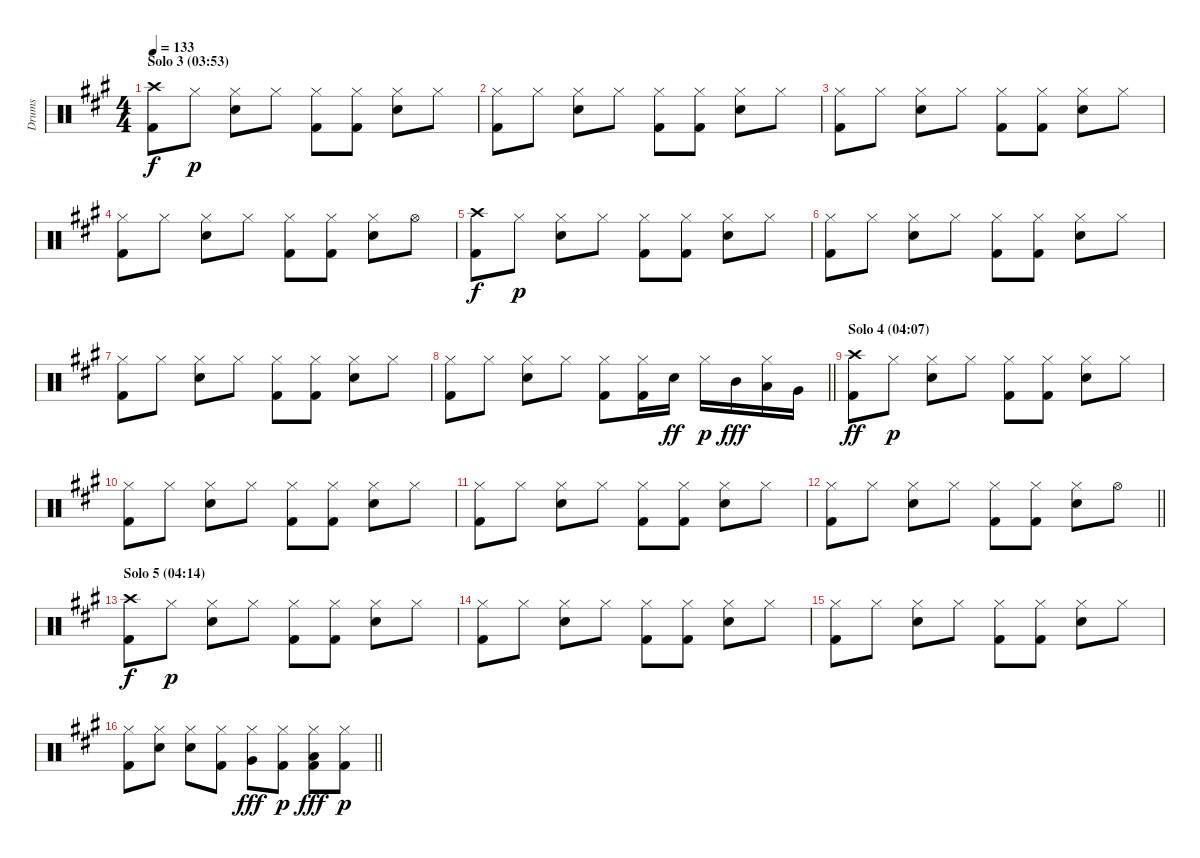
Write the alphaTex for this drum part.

\track ("Drums" "Drums") {instrument percussion}
\staff {score}
\articulation defaults
\ts (4 4)
\section ("" "Solo 3 (03:53)")
\tempo 133
\clef neutral
\ks a
("Crash high (hit)" "Kick (hit) 2").8{dy f} "Hi-Hat (closed)".8{dy p} ("Hi-Hat (closed)" "Snare (hit) 2").8 "Hi-Hat (closed)".8 ("Hi-Hat (closed)" "Kick (hit) 2").8 ("Hi-Hat (closed)" "Kick (hit) 2").8 ("Hi-Hat (closed)" "Snare (hit) 2").8 "Hi-Hat (closed)".8 |
("Hi-Hat (closed)" "Kick (hit) 2").8 "Hi-Hat (closed)".8 ("Hi-Hat (closed)" "Snare (hit) 2").8 "Hi-Hat (closed)".8 ("Hi-Hat (closed)" "Kick (hit) 2").8 ("Hi-Hat (closed)" "Kick (hit) 2").8 ("Hi-Hat (closed)" "Snare (hit) 2").8 "Hi-Hat (closed)".8 |
("Hi-Hat (closed)" "Kick (hit) 2").8 "Hi-Hat (closed)".8 ("Hi-Hat (closed)" "Snare (hit) 2").8 "Hi-Hat (closed)".8 ("Hi-Hat (closed)" "Kick (hit) 2").8 ("Hi-Hat (closed)" "Kick (hit) 2").8 ("Hi-Hat (closed)" "Snare (hit) 2").8 "Hi-Hat (closed)".8 |
("Hi-Hat (closed)" "Kick (hit) 2").8 "Hi-Hat (closed)".8 ("Hi-Hat (closed)" "Snare (hit) 2").8 "Hi-Hat (closed)".8 ("Hi-Hat (closed)" "Kick (hit) 2").8 ("Hi-Hat (closed)" "Kick (hit) 2").8 ("Hi-Hat (closed)" "Snare (hit) 2").8 "Hi-Hat (open)".8 |
("Crash high (hit)" "Kick (hit) 2").8{dy f} "Hi-Hat (closed)".8{dy p} ("Hi-Hat (closed)" "Snare (hit) 2").8 "Hi-Hat (closed)".8 ("Hi-Hat (closed)" "Kick (hit) 2").8 ("Hi-Hat (closed)" "Kick (hit) 2").8 ("Hi-Hat (closed)" "Snare (hit) 2").8 "Hi-Hat (closed)".8 |
("Hi-Hat (closed)" "Kick (hit) 2").8 "Hi-Hat (closed)".8 ("Hi-Hat (closed)" "Snare (hit) 2").8 "Hi-Hat (closed)".8 ("Hi-Hat (closed)" "Kick (hit) 2").8 ("Hi-Hat (closed)" "Kick (hit) 2").8 ("Hi-Hat (closed)" "Snare (hit) 2").8 "Hi-Hat (closed)".8 |
("Hi-Hat (closed)" "Kick (hit) 2").8 "Hi-Hat (closed)".8 ("Hi-Hat (closed)" "Snare (hit) 2").8 "Hi-Hat (closed)".8 ("Hi-Hat (closed)" "Kick (hit) 2").8 ("Hi-Hat (closed)" "Kick (hit) 2").8 ("Hi-Hat (closed)" "Snare (hit) 2").8 "Hi-Hat (closed)".8 |
\barLineRight lightlight
("Hi-Hat (closed)" "Kick (hit) 2").8 "Hi-Hat (closed)".8 ("Hi-Hat (closed)" "Snare (hit) 2").8 "Hi-Hat (closed)".8 ("Hi-Hat (closed)" "Kick (hit) 2").8 ("Hi-Hat (closed)" "Kick (hit) 2").16 "Snare (hit) 2".16{dy ff} "Hi-Hat (closed)".16{dy p} "Mid Tom (hit)".16{dy fff} ("Hi-Hat (closed)" "Low Tom (hit)").16 "Very Low Tom (hit)".16 |
\section ("" "Solo 4 (04:07)")
("Crash high (hit)" "Kick (hit) 2").8{dy ff} "Hi-Hat (closed)".8{dy p} ("Hi-Hat (closed)" "Snare (hit) 2").8 "Hi-Hat (closed)".8 ("Hi-Hat (closed)" "Kick (hit) 2").8 ("Hi-Hat (closed)" "Kick (hit) 2").8 ("Hi-Hat (closed)" "Snare (hit) 2").8 "Hi-Hat (closed)".8 |
("Hi-Hat (closed)" "Kick (hit) 2").8 "Hi-Hat (closed)".8 ("Hi-Hat (closed)" "Snare (hit) 2").8 "Hi-Hat (closed)".8 ("Hi-Hat (closed)" "Kick (hit) 2").8 ("Hi-Hat (closed)" "Kick (hit) 2").8 ("Hi-Hat (closed)" "Snare (hit) 2").8 "Hi-Hat (closed)".8 |
("Hi-Hat (closed)" "Kick (hit) 2").8 "Hi-Hat (closed)".8 ("Hi-Hat (closed)" "Snare (hit) 2").8 "Hi-Hat (closed)".8 ("Hi-Hat (closed)" "Kick (hit) 2").8 ("Hi-Hat (closed)" "Kick (hit) 2").8 ("Hi-Hat (closed)" "Snare (hit) 2").8 "Hi-Hat (closed)".8 |
\barLineRight lightlight
("Hi-Hat (closed)" "Kick (hit) 2").8 "Hi-Hat (closed)".8 ("Hi-Hat (closed)" "Snare (hit) 2").8 "Hi-Hat (closed)".8 ("Hi-Hat (closed)" "Kick (hit) 2").8 ("Hi-Hat (closed)" "Kick (hit) 2").8 ("Hi-Hat (closed)" "Snare (hit) 2").8 "Hi-Hat (open)".8 |
\section ("" "Solo 5 (04:14)")
("Crash high (hit)" "Kick (hit) 2").8{dy f} "Hi-Hat (closed)".8{dy p} ("Hi-Hat (closed)" "Snare (hit) 2").8 "Hi-Hat (closed)".8 ("Hi-Hat (closed)" "Kick (hit) 2").8 ("Hi-Hat (closed)" "Kick (hit) 2").8 ("Hi-Hat (closed)" "Snare (hit) 2").8 "Hi-Hat (closed)".8 |
("Hi-Hat (closed)" "Kick (hit) 2").8 "Hi-Hat (closed)".8 ("Hi-Hat (closed)" "Snare (hit) 2").8 "Hi-Hat (closed)".8 ("Hi-Hat (closed)" "Kick (hit) 2").8 ("Hi-Hat (closed)" "Kick (hit) 2").8 ("Hi-Hat (closed)" "Snare (hit) 2").8 "Hi-Hat (closed)".8 |
("Hi-Hat (closed)" "Kick (hit) 2").8 "Hi-Hat (closed)".8 ("Hi-Hat (closed)" "Snare (hit) 2").8 "Hi-Hat (closed)".8 ("Hi-Hat (closed)" "Kick (hit) 2").8 ("Hi-Hat (closed)" "Kick (hit) 2").8 ("Hi-Hat (closed)" "Snare (hit) 2").8 "Hi-Hat (closed)".8 |
\barLineRight lightlight
("Hi-Hat (closed)" "Kick (hit) 2").8 ("Hi-Hat (closed)" "Snare (hit) 2").8 ("Hi-Hat (closed)" "Snare (hit) 2").8 ("Hi-Hat (closed)" "Kick (hit) 2").8 ("Hi-Hat (closed)" "Very Low Tom (hit)").8{dy fff} ("Hi-Hat (closed)" "Kick (hit) 2").8{dy p} ("Hi-Hat (closed)" "Low Floor Tom (hit)" "Kick (hit) 2").8{dy fff} ("Hi-Hat (closed)" "Kick (hit) 2").8{dy p}
